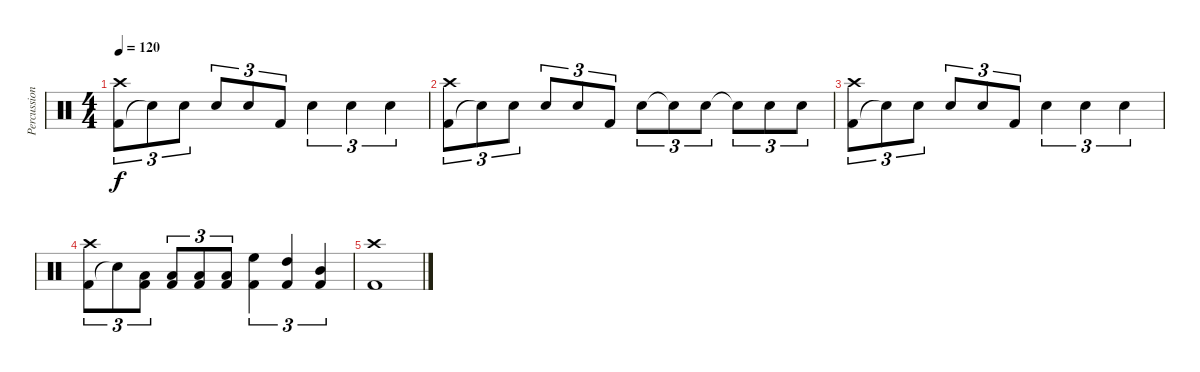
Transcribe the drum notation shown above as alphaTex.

\track ("Percussions" "Percussion") {instrument percussion}
\staff {score}
\articulation defaults
\ts (4 4)
\tempo 120
\clef neutral
\ks c
("Kick (hit) 2" "Crash high (hit)").8{tu (3 2) dy f} "Snare (hit) 2"{t}.8{tu (3 2)} "Snare (hit) 2".8{tu (3 2)} "Snare (hit) 2".8{tu (3 2)} "Snare (hit) 2".8{tu (3 2)} "Kick (hit) 2".8{tu (3 2)} "Snare (hit) 2".4{tu (3 2)} "Snare (hit) 2".4{tu (3 2)} "Snare (hit) 2".4{tu (3 2)} |
("Kick (hit) 2" "Crash high (hit)").8{tu (3 2)} "Snare (hit) 2"{t}.8{tu (3 2)} "Snare (hit) 2".8{tu (3 2)} "Snare (hit) 2".8{tu (3 2)} "Snare (hit) 2".8{tu (3 2)} "Kick (hit) 2".8{tu (3 2)} "Snare (hit) 2".8{tu (3 2)} "Snare (hit) 2"{t}.8{tu (3 2)} "Snare (hit) 2".8{tu (3 2)} "Snare (hit)"{t}.8{tu (3 2)} "Snare (hit) 2".8{tu (3 2)} "Snare (hit) 2".8{tu (3 2)} |
("Kick (hit) 2" "Crash high (hit)").8{tu (3 2)} "Snare (hit) 2"{t}.8{tu (3 2)} "Snare (hit) 2".8{tu (3 2)} "Snare (hit) 2".8{tu (3 2)} "Snare (hit) 2".8{tu (3 2)} "Kick (hit) 2".8{tu (3 2)} "Snare (hit) 2".4{tu (3 2)} "Snare (hit) 2".4{tu (3 2)} "Snare (hit) 2".4{tu (3 2)} |
("Kick (hit) 2" "Crash high (hit)").8{tu (3 2)} "Snare (hit) 2"{t}.8{tu (3 2)} ("Kick (hit) 2" "Low Tom (hit)").8{tu (3 2)} ("Kick (hit) 2" "Low Tom (hit)").8{tu (3 2)} ("Kick (hit) 2" "Low Tom (hit)").8{tu (3 2)} ("Kick (hit) 2" "Low Tom (hit)").8{tu (3 2)} ("Kick (hit) 2" "High Floor Tom (hit)").4{tu (3 2)} ("Kick (hit) 2" "High Tom (hit)").4{tu (3 2)} ("Kick (hit) 2" "Mid Tom (hit)").4{tu (3 2)} |
("Kick (hit) 2" "Crash high (hit)").1
